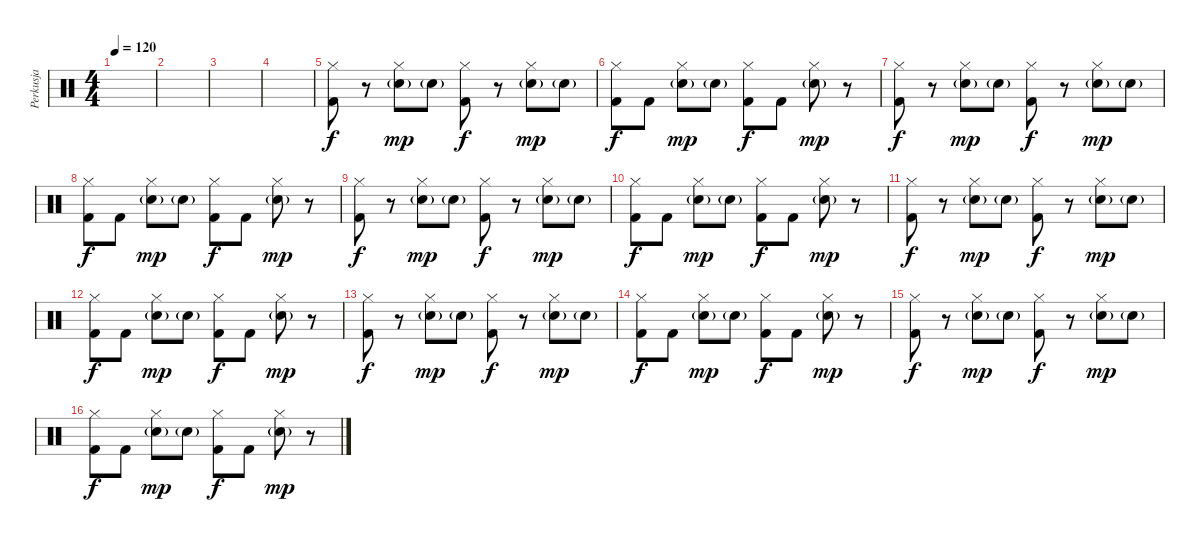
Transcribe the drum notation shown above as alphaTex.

\track ("Perkusja" "Perkusja") {instrument percussion}
\staff {score}
\articulation defaults
\ts (4 4)
\tempo 120
\clef neutral
\ks c
|
|
|
|
("Hi-Hat (closed)" "Kick (hit) 2").8 r.8 ("Hi-Hat (closed)" "Snare (hit) 2"{g}).8{dy mp} "Snare (hit) 2"{g}.8 ("Hi-Hat (closed)" "Kick (hit) 2").8{dy f} r.8 ("Hi-Hat (closed)" "Snare (hit) 2"{g}).8{dy mp} "Snare (hit) 2"{g}.8 |
("Hi-Hat (closed)" "Kick (hit) 2").8{dy f} "Kick (hit) 2".8 ("Hi-Hat (closed)" "Snare (hit) 2"{g}).8{dy mp} "Snare (hit) 2"{g}.8 ("Hi-Hat (closed)" "Kick (hit) 2").8{dy f} "Kick (hit) 2".8 ("Hi-Hat (closed)" "Snare (hit) 2"{g}).8{dy mp} r.8 |
("Hi-Hat (closed)" "Kick (hit) 2").8{dy f} r.8 ("Hi-Hat (closed)" "Snare (hit) 2"{g}).8{dy mp} "Snare (hit) 2"{g}.8 ("Hi-Hat (closed)" "Kick (hit) 2").8{dy f} r.8 ("Hi-Hat (closed)" "Snare (hit) 2"{g}).8{dy mp} "Snare (hit) 2"{g}.8 |
("Hi-Hat (closed)" "Kick (hit) 2").8{dy f} "Kick (hit) 2".8 ("Hi-Hat (closed)" "Snare (hit) 2"{g}).8{dy mp} "Snare (hit) 2"{g}.8 ("Hi-Hat (closed)" "Kick (hit) 2").8{dy f} "Kick (hit) 2".8 ("Hi-Hat (closed)" "Snare (hit) 2"{g}).8{dy mp} r.8 |
("Hi-Hat (closed)" "Kick (hit) 2").8{dy f} r.8 ("Hi-Hat (closed)" "Snare (hit) 2"{g}).8{dy mp} "Snare (hit) 2"{g}.8 ("Hi-Hat (closed)" "Kick (hit) 2").8{dy f} r.8 ("Hi-Hat (closed)" "Snare (hit) 2"{g}).8{dy mp} "Snare (hit) 2"{g}.8 |
("Hi-Hat (closed)" "Kick (hit) 2").8{dy f} "Kick (hit) 2".8 ("Hi-Hat (closed)" "Snare (hit) 2"{g}).8{dy mp} "Snare (hit) 2"{g}.8 ("Hi-Hat (closed)" "Kick (hit) 2").8{dy f} "Kick (hit) 2".8 ("Hi-Hat (closed)" "Snare (hit) 2"{g}).8{dy mp} r.8 |
("Hi-Hat (closed)" "Kick (hit) 2").8{dy f} r.8 ("Hi-Hat (closed)" "Snare (hit) 2"{g}).8{dy mp} "Snare (hit) 2"{g}.8 ("Hi-Hat (closed)" "Kick (hit) 2").8{dy f} r.8 ("Hi-Hat (closed)" "Snare (hit) 2"{g}).8{dy mp} "Snare (hit) 2"{g}.8 |
("Hi-Hat (closed)" "Kick (hit) 2").8{dy f} "Kick (hit) 2".8 ("Hi-Hat (closed)" "Snare (hit) 2"{g}).8{dy mp} "Snare (hit) 2"{g}.8 ("Hi-Hat (closed)" "Kick (hit) 2").8{dy f} "Kick (hit) 2".8 ("Hi-Hat (closed)" "Snare (hit) 2"{g}).8{dy mp} r.8 |
("Hi-Hat (closed)" "Kick (hit) 2").8{dy f} r.8 ("Hi-Hat (closed)" "Snare (hit) 2"{g}).8{dy mp} "Snare (hit) 2"{g}.8 ("Hi-Hat (closed)" "Kick (hit) 2").8{dy f} r.8 ("Hi-Hat (closed)" "Snare (hit) 2"{g}).8{dy mp} "Snare (hit) 2"{g}.8 |
("Hi-Hat (closed)" "Kick (hit) 2").8{dy f} "Kick (hit) 2".8 ("Hi-Hat (closed)" "Snare (hit) 2"{g}).8{dy mp} "Snare (hit) 2"{g}.8 ("Hi-Hat (closed)" "Kick (hit) 2").8{dy f} "Kick (hit) 2".8 ("Hi-Hat (closed)" "Snare (hit) 2"{g}).8{dy mp} r.8 |
("Hi-Hat (closed)" "Kick (hit) 2").8{dy f} r.8 ("Hi-Hat (closed)" "Snare (hit) 2"{g}).8{dy mp} "Snare (hit) 2"{g}.8 ("Hi-Hat (closed)" "Kick (hit) 2").8{dy f} r.8 ("Hi-Hat (closed)" "Snare (hit) 2"{g}).8{dy mp} "Snare (hit) 2"{g}.8 |
("Hi-Hat (closed)" "Kick (hit) 2").8{dy f} "Kick (hit) 2".8 ("Hi-Hat (closed)" "Snare (hit) 2"{g}).8{dy mp} "Snare (hit) 2"{g}.8 ("Hi-Hat (closed)" "Kick (hit) 2").8{dy f} "Kick (hit) 2".8 ("Hi-Hat (closed)" "Snare (hit) 2"{g}).8{dy mp} r.8
